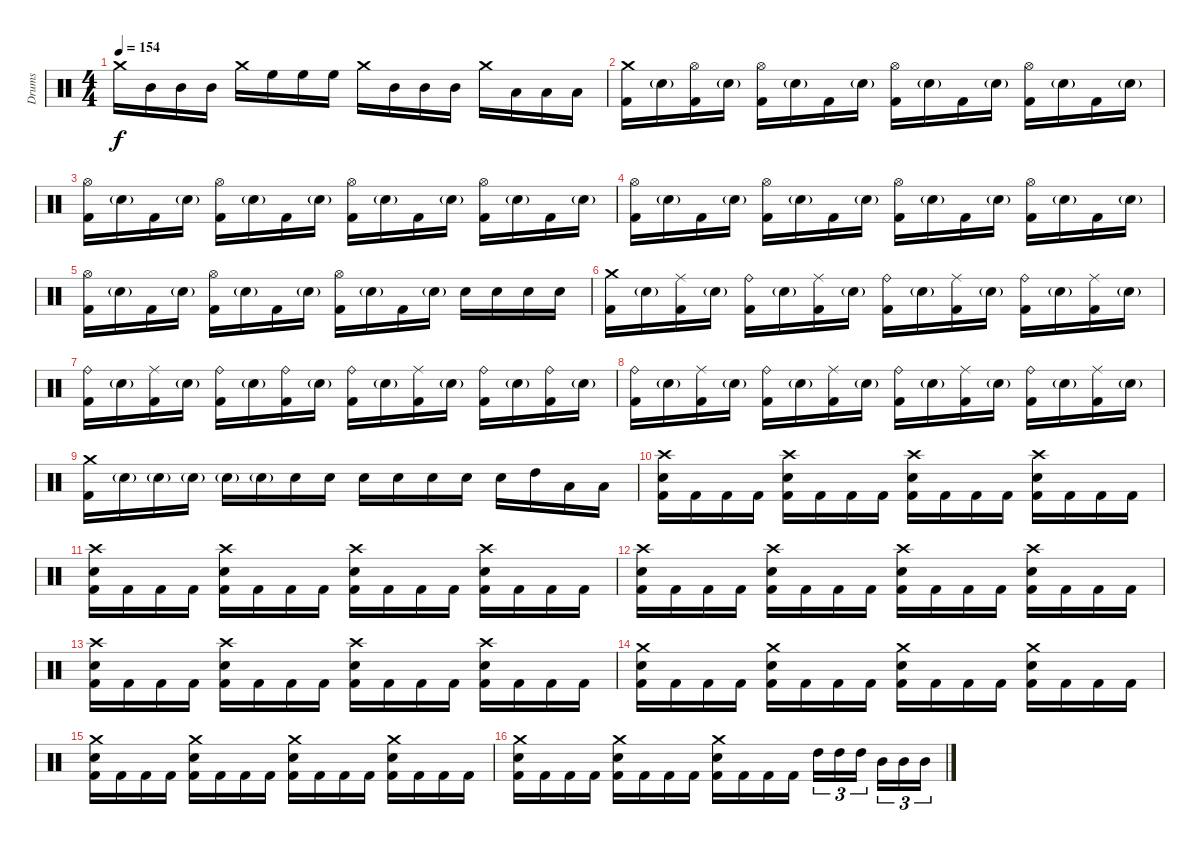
\track ("Drums" "Drums") {instrument percussion}
\staff {score}
\articulation defaults
\ts (4 4)
\tempo 154
\clef neutral
\ks c "Crash medium (hit)".16{dy f} "Mid Tom (hit)".16 "Mid Tom (hit)".16 "Mid Tom (hit)".16 "Crash medium (hit)".16 "High Floor Tom (hit)".16 "High Floor Tom (hit)".16 "High Floor Tom (hit)".16 "Crash medium (hit)".16 "Mid Tom (hit)".16 "Mid Tom (hit)".16 "Mid Tom (hit)".16 "Crash medium (hit)".16 "Low Tom (hit)".16 "Low Tom (hit)".16 "Low Tom (hit)".16
|
("Crash medium (hit)" "Kick (hit) 2").16 "Snare (hit) 2"{g}.16 ("Hi-Hat (open)" "Kick (hit) 2").16 "Snare (hit) 2"{g}.16 ("Hi-Hat (open)" "Kick (hit) 2").16 "Snare (hit) 2"{g}.16 "Kick (hit) 2".16 "Snare (hit) 2"{g}.16 ("Hi-Hat (open)" "Kick (hit) 2").16 "Snare (hit) 2"{g}.16 "Kick (hit) 2".16 "Snare (hit) 2"{g}.16 ("Hi-Hat (open)" "Kick (hit) 2").16 "Snare (hit) 2"{g}.16 "Kick (hit) 2".16 "Snare (hit) 2"{g}.16 |
("Hi-Hat (open)" "Kick (hit) 2").16 "Snare (hit) 2"{g}.16 "Kick (hit) 2".16 "Snare (hit) 2"{g}.16 ("Hi-Hat (open)" "Kick (hit) 2").16 "Snare (hit) 2"{g}.16 "Kick (hit) 2".16 "Snare (hit) 2"{g}.16 ("Hi-Hat (open)" "Kick (hit) 2").16 "Snare (hit) 2"{g}.16 "Kick (hit) 2".16 "Snare (hit) 2"{g}.16 ("Hi-Hat (open)" "Kick (hit) 2").16 "Snare (hit) 2"{g}.16 "Kick (hit) 2".16 "Snare (hit) 2"{g}.16 |
("Hi-Hat (open)" "Kick (hit) 2").16 "Snare (hit) 2"{g}.16 "Kick (hit) 2".16 "Snare (hit) 2"{g}.16 ("Hi-Hat (open)" "Kick (hit) 2").16 "Snare (hit) 2"{g}.16 "Kick (hit) 2".16 "Snare (hit) 2"{g}.16 ("Hi-Hat (open)" "Kick (hit) 2").16 "Snare (hit) 2"{g}.16 "Kick (hit) 2".16 "Snare (hit) 2"{g}.16 ("Hi-Hat (open)" "Kick (hit) 2").16 "Snare (hit) 2"{g}.16 "Kick (hit) 2".16 "Snare (hit) 2"{g}.16 |
("Hi-Hat (open)" "Kick (hit) 2").16 "Snare (hit) 2"{g}.16 "Kick (hit) 2".16 "Snare (hit) 2"{g}.16 ("Hi-Hat (open)" "Kick (hit) 2").16 "Snare (hit) 2"{g}.16 "Kick (hit) 2".16 "Snare (hit) 2"{g}.16 ("Hi-Hat (open)" "Kick (hit) 2").16 "Snare (hit) 2"{g}.16 "Kick (hit) 2".16 "Snare (hit) 2"{g}.16 "Snare (hit) 2".16 "Snare (hit) 2".16 "Snare (hit) 2".16 "Snare (hit) 2".16 |
("Crash medium (hit)" "Kick (hit) 2").16 "Snare (hit) 2"{g}.16 ("Ride (middle)" "Kick (hit) 2").16 "Snare (hit) 2"{g}.16 ("Ride (bell)" "Kick (hit) 2").16 "Snare (hit) 2"{g}.16 ("Ride (middle)" "Kick (hit) 2").16 "Snare (hit) 2"{g}.16 ("Ride (bell)" "Kick (hit) 2").16 "Snare (hit) 2"{g}.16 ("Ride (middle)" "Kick (hit) 2").16 "Snare (hit) 2"{g}.16 ("Ride (bell)" "Kick (hit) 2").16 "Snare (hit) 2"{g}.16 ("Ride (middle)" "Kick (hit) 2").16 "Snare (hit) 2"{g}.16 |
("Ride (bell)" "Kick (hit) 2").16 "Snare (hit) 2"{g}.16 ("Ride (middle)" "Kick (hit) 2").16 "Snare (hit) 2"{g}.16 ("Ride (bell)" "Kick (hit) 2").16 "Snare (hit) 2"{g}.16 ("Ride (bell)" "Kick (hit) 2").16 "Snare (hit) 2"{g}.16 ("Ride (bell)" "Kick (hit) 2").16 "Snare (hit) 2"{g}.16 ("Ride (middle)" "Kick (hit) 2").16 "Snare (hit) 2"{g}.16 ("Ride (bell)" "Kick (hit) 2").16 "Snare (hit) 2"{g}.16 ("Ride (bell)" "Kick (hit) 2").16 "Snare (hit) 2"{g}.16 |
("Ride (bell)" "Kick (hit) 2").16 "Snare (hit) 2"{g}.16 ("Ride (middle)" "Kick (hit) 2").16 "Snare (hit) 2"{g}.16 ("Ride (bell)" "Kick (hit) 2").16 "Snare (hit) 2"{g}.16 ("Ride (middle)" "Kick (hit) 2").16 "Snare (hit) 2"{g}.16 ("Ride (bell)" "Kick (hit) 2").16 "Snare (hit) 2"{g}.16 ("Ride (middle)" "Kick (hit) 2").16 "Snare (hit) 2"{g}.16 ("Ride (bell)" "Kick (hit) 2").16 "Snare (hit) 2"{g}.16 ("Ride (middle)" "Kick (hit) 2").16 "Snare (hit) 2"{g}.16 |
("Crash medium (hit)" "Kick (hit) 2").16 "Snare (hit) 2"{g}.16 "Snare (hit) 2"{g}.16 "Snare (hit) 2"{g}.16 "Snare (hit) 2"{g}.16 "Snare (hit) 2"{g}.16 "Snare (hit) 2".16 "Snare (hit) 2".16 "Snare (hit) 2".16 "Snare (hit) 2".16 "Snare (hit) 2".16 "Snare (hit) 2".16 "Snare (hit) 2".16 "High Tom (hit)".16 "Low Tom (hit)".16 "Low Tom (hit)".16 |
("Crash high (hit)" "Snare (hit) 2" "Kick (hit) 2").16 "Kick (hit) 2".16 "Kick (hit) 2".16 "Kick (hit) 2".16 ("Crash high (hit)" "Snare (hit) 2" "Kick (hit) 2").16 "Kick (hit) 2".16 "Kick (hit) 2".16 "Kick (hit) 2".16 ("Crash high (hit)" "Snare (hit) 2" "Kick (hit) 2").16 "Kick (hit) 2".16 "Kick (hit) 2".16 "Kick (hit) 2".16 ("Crash high (hit)" "Snare (hit) 2" "Kick (hit) 2").16 "Kick (hit) 2".16 "Kick (hit) 2".16 "Kick (hit) 2".16 |
("Crash high (hit)" "Snare (hit) 2" "Kick (hit) 2").16 "Kick (hit) 2".16 "Kick (hit) 2".16 "Kick (hit) 2".16 ("Crash high (hit)" "Snare (hit) 2" "Kick (hit) 2").16 "Kick (hit) 2".16 "Kick (hit) 2".16 "Kick (hit) 2".16 ("Crash high (hit)" "Snare (hit) 2" "Kick (hit) 2").16 "Kick (hit) 2".16 "Kick (hit) 2".16 "Kick (hit) 2".16 ("Crash high (hit)" "Snare (hit) 2" "Kick (hit) 2").16 "Kick (hit) 2".16 "Kick (hit) 2".16 "Kick (hit) 2".16 |
("Crash high (hit)" "Snare (hit) 2" "Kick (hit) 2").16 "Kick (hit) 2".16 "Kick (hit) 2".16 "Kick (hit) 2".16 ("Crash high (hit)" "Snare (hit) 2" "Kick (hit) 2").16 "Kick (hit) 2".16 "Kick (hit) 2".16 "Kick (hit) 2".16 ("Crash high (hit)" "Snare (hit) 2" "Kick (hit) 2").16 "Kick (hit) 2".16 "Kick (hit) 2".16 "Kick (hit) 2".16 ("Crash high (hit)" "Snare (hit) 2" "Kick (hit) 2").16 "Kick (hit) 2".16 "Kick (hit) 2".16 "Kick (hit) 2".16 |
("Crash high (hit)" "Snare (hit) 2" "Kick (hit) 2").16 "Kick (hit) 2".16 "Kick (hit) 2".16 "Kick (hit) 2".16 ("Crash high (hit)" "Snare (hit) 2" "Kick (hit) 2").16 "Kick (hit) 2".16 "Kick (hit) 2".16 "Kick (hit) 2".16 ("Crash high (hit)" "Snare (hit) 2" "Kick (hit) 2").16 "Kick (hit) 2".16 "Kick (hit) 2".16 "Kick (hit) 2".16 ("Crash high (hit)" "Snare (hit) 2" "Kick (hit) 2").16 "Kick (hit) 2".16 "Kick (hit) 2".16 "Kick (hit) 2".16 |
("Crash medium (hit)" "Snare (hit) 2" "Kick (hit) 2").16 "Kick (hit) 2".16 "Kick (hit) 2".16 "Kick (hit) 2".16 ("Crash medium (hit)" "Snare (hit) 2" "Kick (hit) 2").16 "Kick (hit) 2".16 "Kick (hit) 2".16 "Kick (hit) 2".16 ("Crash medium (hit)" "Snare (hit) 2" "Kick (hit) 2").16 "Kick (hit) 2".16 "Kick (hit) 2".16 "Kick (hit) 2".16 ("Crash medium (hit)" "Snare (hit) 2" "Kick (hit) 2").16 "Kick (hit) 2".16 "Kick (hit) 2".16 "Kick (hit) 2".16 |
("Crash medium (hit)" "Snare (hit) 2" "Kick (hit) 2").16 "Kick (hit) 2".16 "Kick (hit) 2".16 "Kick (hit) 2".16 ("Crash medium (hit)" "Snare (hit) 2" "Kick (hit) 2").16 "Kick (hit) 2".16 "Kick (hit) 2".16 "Kick (hit) 2".16 ("Crash medium (hit)" "Snare (hit) 2" "Kick (hit) 2").16 "Kick (hit) 2".16 "Kick (hit) 2".16 "Kick (hit) 2".16 ("Crash medium (hit)" "Snare (hit) 2" "Kick (hit) 2").16 "Kick (hit) 2".16 "Kick (hit) 2".16 "Kick (hit) 2".16 |
("Crash medium (hit)" "Snare (hit) 2" "Kick (hit) 2").16 "Kick (hit) 2".16 "Kick (hit) 2".16 "Kick (hit) 2".16 ("Crash medium (hit)" "Snare (hit) 2" "Kick (hit) 2").16 "Kick (hit) 2".16 "Kick (hit) 2".16 "Kick (hit) 2".16 ("Crash medium (hit)" "Snare (hit) 2" "Kick (hit) 2").16 "Kick (hit) 2".16 "Kick (hit) 2".16 "Kick (hit) 2".16 "High Tom (hit)".16{tu (3 2)} "High Tom (hit)".16{tu (3 2)} "High Tom (hit)".16{tu (3 2)} "Mid Tom (hit)".16{tu (3 2)} "Mid Tom (hit)".16{tu (3 2)} "Mid Tom (hit)".16{tu (3 2)}
